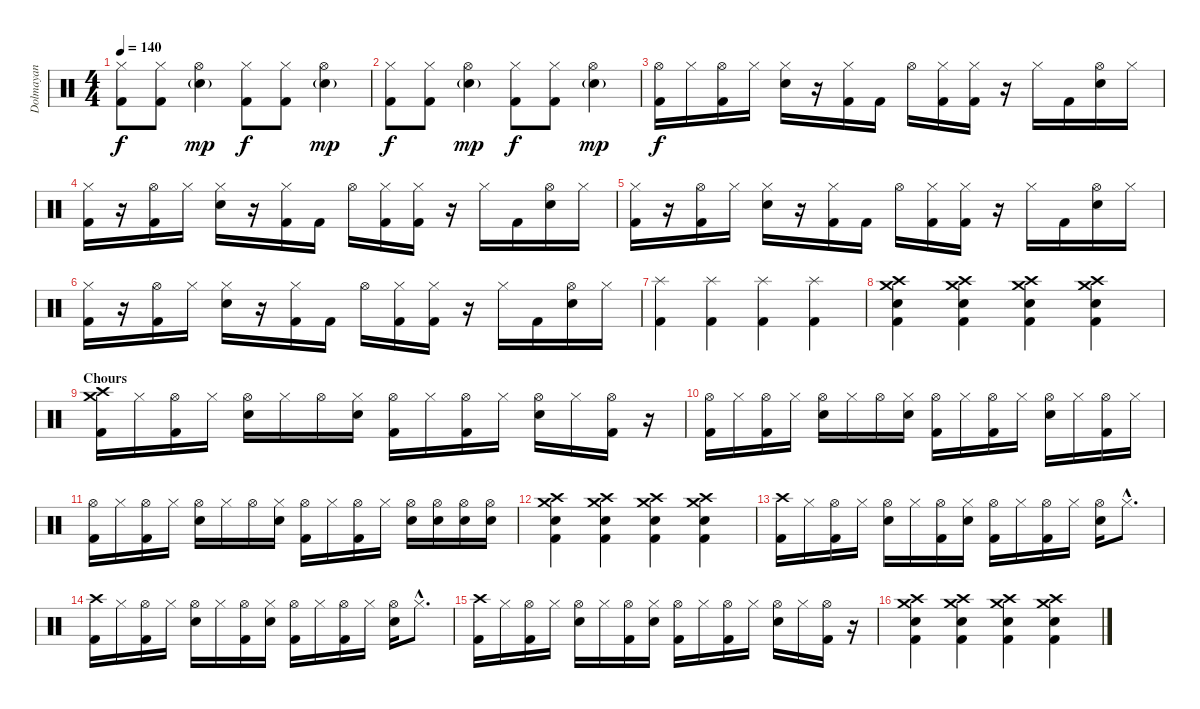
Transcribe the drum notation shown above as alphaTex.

\track ("Dolmayan" "Dolmayan") {instrument percussion}
\staff {score}
\articulation defaults
\ts (4 4)
\tempo 140
\clef neutral
\ks c
("Hi-Hat (closed)" "Kick (hit) 2").8{dy f} ("Hi-Hat (closed)" "Kick (hit) 2").8 ("Hi-Hat (open)" "Electric Snare (hit)"{g}).4{dy mp} ("Hi-Hat (closed)" "Kick (hit) 2").8{dy f} ("Hi-Hat (closed)" "Kick (hit) 2").8 ("Hi-Hat (open)" "Electric Snare (hit)"{g}).4{dy mp} |
("Hi-Hat (closed)" "Kick (hit) 2").8{dy f} ("Hi-Hat (closed)" "Kick (hit) 2").8 ("Hi-Hat (open)" "Electric Snare (hit)"{g}).4{dy mp} ("Hi-Hat (closed)" "Kick (hit) 2").8{dy f} ("Hi-Hat (closed)" "Kick (hit) 2").8 ("Hi-Hat (open)" "Electric Snare (hit)"{g}).4{dy mp} |
("Hi-Hat (open)" "Kick (hit) 2").16{dy f} "Hi-Hat (closed)".16 ("Hi-Hat (open)" "Kick (hit) 2").16 "Hi-Hat (closed)".16 ("Hi-Hat (closed)" "Electric Snare (hit)").16 r.16 ("Hi-Hat (closed)" "Kick (hit) 2").16 "Kick (hit) 2".16 "Hi-Hat (open)".16 ("Hi-Hat (closed)" "Kick (hit) 2").16 ("Hi-Hat (closed)" "Kick (hit) 2").16 r.16 "Hi-Hat (closed)".16 "Kick (hit) 2".16 ("Hi-Hat (open)" "Electric Snare (hit)").16 "Hi-Hat (closed)".16 |
("Hi-Hat (closed)" "Kick (hit) 2").16 r.16 ("Hi-Hat (open)" "Kick (hit) 2").16 "Hi-Hat (closed)".16 ("Hi-Hat (closed)" "Electric Snare (hit)").16 r.16 ("Hi-Hat (closed)" "Kick (hit) 2").16 "Kick (hit) 2".16 "Hi-Hat (open)".16 ("Hi-Hat (closed)" "Kick (hit) 2").16 ("Hi-Hat (closed)" "Kick (hit) 2").16 r.16 "Hi-Hat (closed)".16 "Kick (hit) 2".16 ("Hi-Hat (open)" "Electric Snare (hit)").16 "Hi-Hat (closed)".16 |
("Hi-Hat (closed)" "Kick (hit) 2").16 r.16 ("Hi-Hat (open)" "Kick (hit) 2").16 "Hi-Hat (closed)".16 ("Hi-Hat (closed)" "Electric Snare (hit)").16 r.16 ("Hi-Hat (closed)" "Kick (hit) 2").16 "Kick (hit) 2".16 "Hi-Hat (open)".16 ("Hi-Hat (closed)" "Kick (hit) 2").16 ("Hi-Hat (closed)" "Kick (hit) 2").16 r.16 "Hi-Hat (closed)".16 "Kick (hit) 2".16 ("Hi-Hat (open)" "Electric Snare (hit)").16 "Hi-Hat (closed)".16 |
("Hi-Hat (closed)" "Kick (hit) 2").16 r.16 ("Hi-Hat (open)" "Kick (hit) 2").16 "Hi-Hat (closed)".16 ("Hi-Hat (closed)" "Electric Snare (hit)").16 r.16 ("Hi-Hat (closed)" "Kick (hit) 2").16 "Kick (hit) 2".16 "Hi-Hat (open)".16 ("Hi-Hat (closed)" "Kick (hit) 2").16 ("Hi-Hat (closed)" "Kick (hit) 2").16 r.16 "Hi-Hat (closed)".16 "Kick (hit) 2".16 ("Hi-Hat (open)" "Electric Snare (hit)").16 "Hi-Hat (closed)".16 |
("Splash (hit)" "Kick (hit) 2").4 ("Splash (hit)" "Kick (hit) 2").4 ("Splash (hit)" "Kick (hit) 2").4 ("Splash (hit)" "Kick (hit) 2").4 |
("Crash high (hit)" "Crash medium (hit)" "Electric Snare (hit)" "Kick (hit) 2").4 ("Crash high (hit)" "Crash medium (hit)" "Electric Snare (hit)" "Kick (hit) 2").4 ("Crash high (hit)" "Crash medium (hit)" "Electric Snare (hit)" "Kick (hit) 2").4 ("Crash high (hit)" "Crash medium (hit)" "Electric Snare (hit)" "Kick (hit) 2").4 |
\section ("" "Chours")
("Crash high (hit)" "Crash medium (hit)" "Kick (hit) 2").16 "Hi-Hat (closed)".16 ("Hi-Hat (open)" "Kick (hit) 2").16 "Hi-Hat (closed)".16 ("Hi-Hat (open)" "Electric Snare (hit)").16 "Hi-Hat (closed)".16 "Hi-Hat (open)".16 ("Hi-Hat (closed)" "Electric Snare (hit)").16 ("Hi-Hat (open)" "Kick (hit) 2").16 "Hi-Hat (closed)".16 ("Hi-Hat (open)" "Kick (hit) 2").16 "Hi-Hat (closed)".16 ("Hi-Hat (open)" "Electric Snare (hit)").16 "Hi-Hat (closed)".16 ("Hi-Hat (open)" "Kick (hit) 2").16 r.16 |
("Hi-Hat (open)" "Kick (hit) 2").16 "Hi-Hat (closed)".16 ("Hi-Hat (open)" "Kick (hit) 2").16 "Hi-Hat (closed)".16 ("Hi-Hat (open)" "Electric Snare (hit)").16 "Hi-Hat (closed)".16 "Hi-Hat (open)".16 ("Hi-Hat (closed)" "Electric Snare (hit)").16 ("Hi-Hat (open)" "Kick (hit) 2").16 "Hi-Hat (closed)".16 ("Hi-Hat (open)" "Kick (hit) 2").16 "Hi-Hat (closed)".16 ("Hi-Hat (open)" "Electric Snare (hit)").16 "Hi-Hat (closed)".16 ("Hi-Hat (open)" "Kick (hit) 2").16 "Hi-Hat (closed)".16 |
("Hi-Hat (open)" "Kick (hit) 2").16 "Hi-Hat (closed)".16 ("Hi-Hat (open)" "Kick (hit) 2").16 "Hi-Hat (closed)".16 ("Hi-Hat (open)" "Electric Snare (hit)").16 "Hi-Hat (closed)".16 "Hi-Hat (open)".16 ("Hi-Hat (closed)" "Electric Snare (hit)").16 ("Hi-Hat (open)" "Kick (hit) 2").16 "Hi-Hat (closed)".16 ("Hi-Hat (open)" "Kick (hit) 2").16 "Hi-Hat (closed)".16 ("Hi-Hat (open)" "Electric Snare (hit)").16 ("Hi-Hat (open)" "Electric Snare (hit)").16 ("Hi-Hat (open)" "Electric Snare (hit)").16 ("Hi-Hat (open)" "Electric Snare (hit)").16 |
("Crash high (hit)" "Crash medium (hit)" "Electric Snare (hit)" "Kick (hit) 2").4 ("Crash high (hit)" "Crash medium (hit)" "Electric Snare (hit)" "Kick (hit) 2").4 ("Crash high (hit)" "Crash medium (hit)" "Electric Snare (hit)" "Kick (hit) 2").4 ("Crash high (hit)" "Crash medium (hit)" "Electric Snare (hit)" "Kick (hit) 2").4 |
("Crash high (hit)" "Kick (hit) 2").16 "Hi-Hat (closed)".16 ("Hi-Hat (open)" "Kick (hit) 2").16 "Hi-Hat (closed)".16 ("Hi-Hat (open)" "Electric Snare (hit)").16 "Hi-Hat (closed)".16 ("Hi-Hat (open)" "Kick (hit) 2").16 ("Hi-Hat (closed)" "Electric Snare (hit)").16 ("Hi-Hat (open)" "Kick (hit) 2").16 "Hi-Hat (closed)".16 ("Hi-Hat (open)" "Kick (hit) 2").16 "Hi-Hat (closed)".16 ("Hi-Hat (open)" "Electric Snare (hit)").16 "Hi-Hat (closed)"{hac}.8{d} |
("Crash high (hit)" "Kick (hit) 2").16 "Hi-Hat (closed)".16 ("Hi-Hat (open)" "Kick (hit) 2").16 "Hi-Hat (closed)".16 ("Hi-Hat (open)" "Electric Snare (hit)").16 "Hi-Hat (closed)".16 ("Hi-Hat (open)" "Kick (hit) 2").16 ("Hi-Hat (closed)" "Electric Snare (hit)").16 ("Hi-Hat (open)" "Kick (hit) 2").16 "Hi-Hat (closed)".16 ("Hi-Hat (open)" "Kick (hit) 2").16 "Hi-Hat (closed)".16 ("Hi-Hat (open)" "Electric Snare (hit)").16 "Hi-Hat (closed)"{hac}.8{d} |
("Crash high (hit)" "Kick (hit) 2").16 "Hi-Hat (closed)".16 ("Hi-Hat (open)" "Kick (hit) 2").16 "Hi-Hat (closed)".16 ("Hi-Hat (open)" "Electric Snare (hit)").16 "Hi-Hat (closed)".16 ("Hi-Hat (open)" "Kick (hit) 2").16 ("Hi-Hat (closed)" "Electric Snare (hit)").16 ("Hi-Hat (open)" "Kick (hit) 2").16 "Hi-Hat (closed)".16 ("Hi-Hat (open)" "Kick (hit) 2").16 "Hi-Hat (closed)".16 ("Hi-Hat (open)" "Electric Snare (hit)").16 "Hi-Hat (closed)".16 ("Hi-Hat (open)" "Kick (hit) 2").16 r.16 |
("Crash high (hit)" "Crash medium (hit)" "Electric Snare (hit)" "Kick (hit) 2").4 ("Crash high (hit)" "Crash medium (hit)" "Electric Snare (hit)" "Kick (hit) 2").4 ("Crash high (hit)" "Crash medium (hit)" "Electric Snare (hit)" "Kick (hit) 2").4 ("Crash high (hit)" "Crash medium (hit)" "Electric Snare (hit)" "Kick (hit) 2").4
